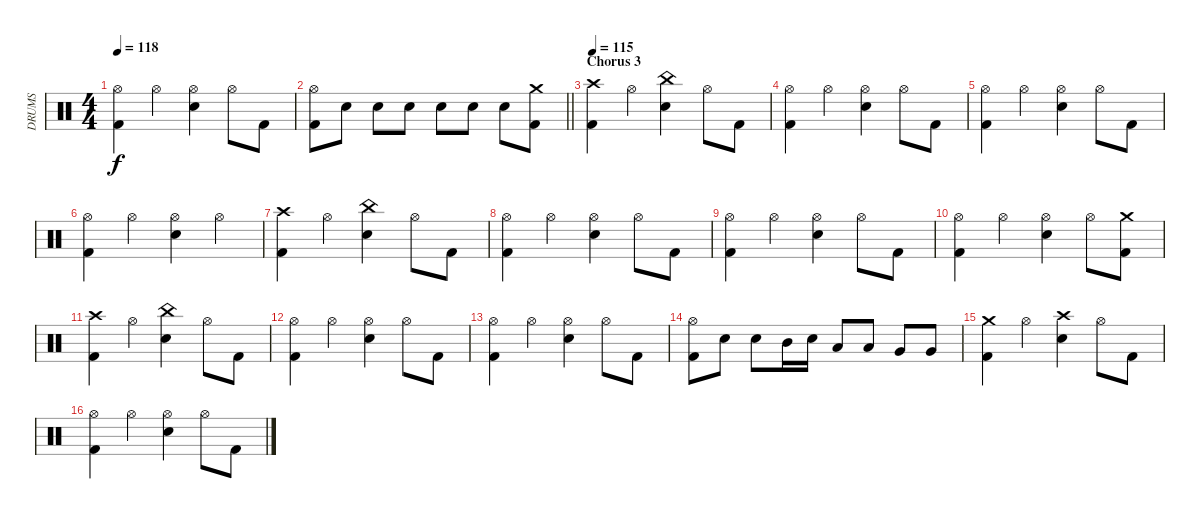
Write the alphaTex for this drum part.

\track ("DRUMS" "DRUMS") {instrument percussion}
\staff {score}
\articulation defaults
\ts (4 4)
\tempo 118
\clef neutral
\ks c
("Hi-Hat (open)" "Kick (hit) 2").4{dy f} "Hi-Hat (open)".4 ("Hi-Hat (open)" "Snare (hit) 2").4 "Hi-Hat (open)".8 "Kick (hit) 2".8 |
\barLineRight lightlight
("Hi-Hat (open)" "Kick (hit) 2").8 "Snare (hit) 2".8 "Snare (hit) 2".8 "Snare (hit) 2".8 "Snare (hit) 2".8 "Snare (hit) 2".8 "Snare (hit) 2".8 ("Crash medium (hit)" "Kick (hit) 2").8 |
\section ("" "Chorus 3")
\tempo 115
("Crash high (hit)" "Kick (hit) 2").4 "Hi-Hat (open)".4 ("China (hit)" "Snare (hit) 2").4 "Hi-Hat (open)".8 "Kick (hit) 2".8 |
("Hi-Hat (open)" "Kick (hit) 2").4 "Hi-Hat (open)".4 ("Hi-Hat (open)" "Snare (hit) 2").4 "Hi-Hat (open)".8 "Kick (hit) 2".8 |
("Hi-Hat (open)" "Kick (hit) 2").4 "Hi-Hat (open)".4 ("Hi-Hat (open)" "Snare (hit) 2").4 "Hi-Hat (open)".8 "Kick (hit) 2".8 |
("Hi-Hat (open)" "Kick (hit) 2").4 "Hi-Hat (open)".4 ("Hi-Hat (open)" "Snare (hit) 2").4 "Hi-Hat (open)".4 |
("Crash high (hit)" "Kick (hit) 2").4 "Hi-Hat (open)".4 ("China (hit)" "Snare (hit) 2").4 "Hi-Hat (open)".8 "Kick (hit) 2".8 |
("Hi-Hat (open)" "Kick (hit) 2").4 "Hi-Hat (open)".4 ("Hi-Hat (open)" "Snare (hit) 2").4 "Hi-Hat (open)".8 "Kick (hit) 2".8 |
("Hi-Hat (open)" "Kick (hit) 2").4 "Hi-Hat (open)".4 ("Hi-Hat (open)" "Snare (hit) 2").4 "Hi-Hat (open)".8 "Kick (hit) 2".8 |
("Hi-Hat (open)" "Kick (hit) 2").4 "Hi-Hat (open)".4 ("Hi-Hat (open)" "Snare (hit) 2").4 "Hi-Hat (open)".8 ("Crash medium (hit)" "Kick (hit) 2").8 |
("Crash high (hit)" "Kick (hit) 2").4 "Hi-Hat (open)".4 ("China (hit)" "Snare (hit) 2").4 "Hi-Hat (open)".8 "Kick (hit) 2".8 |
("Hi-Hat (open)" "Kick (hit) 2").4 "Hi-Hat (open)".4 ("Hi-Hat (open)" "Snare (hit) 2").4 "Hi-Hat (open)".8 "Kick (hit) 2".8 |
("Hi-Hat (open)" "Kick (hit) 2").4 "Hi-Hat (open)".4 ("Hi-Hat (open)" "Snare (hit) 2").4 "Hi-Hat (open)".8 "Kick (hit) 2".8 |
("Hi-Hat (open)" "Kick (hit) 2").8 "Snare (hit) 2".8 "Snare (hit) 2".8 "Mid Tom (hit)".16 "Snare (hit) 2".16 "Low Tom (hit)".8 "Low Tom (hit)".8 "Very Low Tom (hit)".8 "Very Low Tom (hit)".8 |
("Crash medium (hit)" "Kick (hit) 2").4 "Hi-Hat (open)".4 ("Crash high (hit)" "Snare (hit) 2").4 "Hi-Hat (open)".8 "Kick (hit) 2".8 |
("Hi-Hat (open)" "Kick (hit) 2").4 "Hi-Hat (open)".4 ("Hi-Hat (open)" "Snare (hit) 2").4 "Hi-Hat (open)".8 "Kick (hit) 2".8
